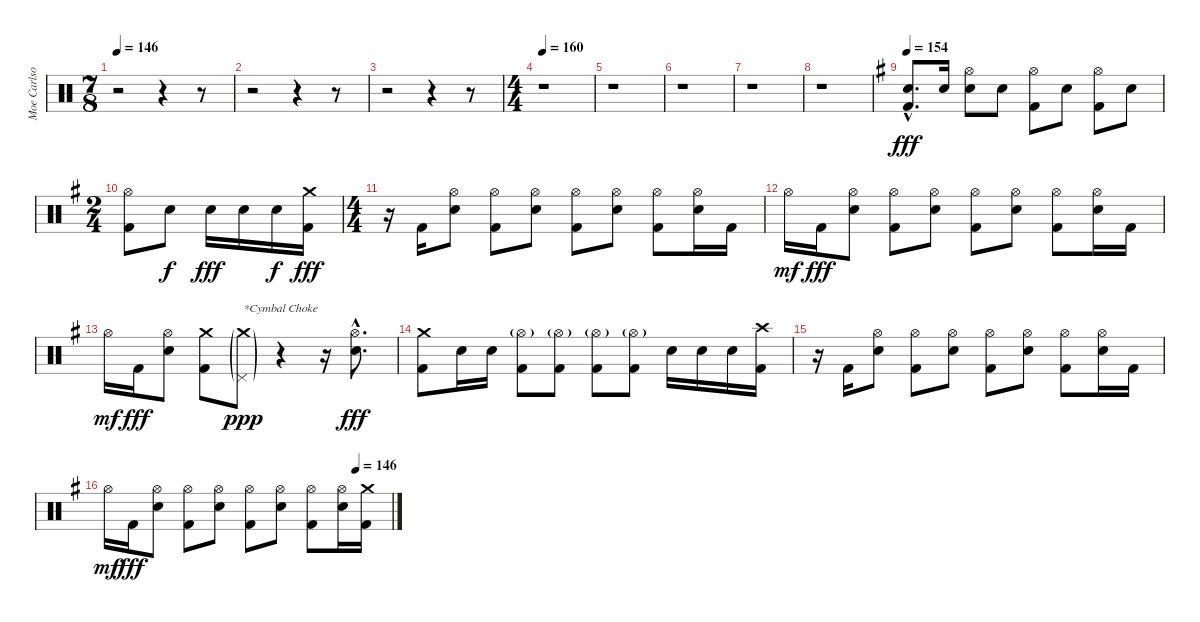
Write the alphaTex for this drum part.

\track ("Moe Carlson" "Moe Carlso") {instrument percussion}
\staff {score}
\articulation defaults
\ts (7 8)
\tempo 146
\clef neutral
\ks c
r.2{dy fff} r.4 r.8 |
r.2 r.4 r.8 |
r.2 r.4 r.8 |
\ts (4 4)
\tempo 160
r.1 |
r.1 |
r.1 |
r.1 |
r.1 |
\tempo 154
\ks g
("Electric Snare (hit)"{hac} "Kick (hit) 2"{hac}).8{d} "Electric Snare (hit)".16 ("Hi-Hat (open)" "Electric Snare (hit)").8 "Electric Snare (hit)".8 ("Hi-Hat (open)" "Kick (hit) 2").8 "Electric Snare (hit)".8 ("Hi-Hat (open)" "Kick (hit) 2").8 "Electric Snare (hit)".8 |
\ts (2 4)
("Hi-Hat (open)" "Kick (hit) 2").8 "Electric Snare (hit)".8{dy f} "Electric Snare (hit)".16{dy fff} "Electric Snare (hit)".16 "Electric Snare (hit)".16{dy f} ("Crash medium (hit)" "Kick (hit) 2").16{dy fff} |
\ts (4 4)
r.16 "Kick (hit) 2".16 ("Hi-Hat (open)" "Electric Snare (hit)").8 ("Hi-Hat (open)" "Kick (hit) 2").8 ("Hi-Hat (open)" "Electric Snare (hit)").8 ("Hi-Hat (open)" "Kick (hit) 2").8 ("Hi-Hat (open)" "Electric Snare (hit)").8 ("Hi-Hat (open)" "Kick (hit) 2").8 ("Hi-Hat (open)" "Electric Snare (hit)").16 "Kick (hit) 2".16 |
"Hi-Hat (open)".16{dy mf} "Kick (hit) 2".16{dy fff} ("Hi-Hat (open)" "Electric Snare (hit)").8 ("Hi-Hat (open)" "Kick (hit) 2").8 ("Hi-Hat (open)" "Electric Snare (hit)").8 ("Hi-Hat (open)" "Kick (hit) 2").8 ("Hi-Hat (open)" "Electric Snare (hit)").8 ("Hi-Hat (open)" "Kick (hit) 2").8 ("Hi-Hat (open)" "Electric Snare (hit)").16 "Kick (hit) 2".16 |
"Hi-Hat (open)".16{dy mf} "Kick (hit) 2".16{dy fff} ("Hi-Hat (open)" "Electric Snare (hit)").8 ("Crash medium (hit)" "Kick (hit) 2").8 ("Crash medium (hit)"{g} "Pedal Hi-Hat (hit)"{g}).8{txt "*Cymbal Choke" dy ppp} r.4 r.16 ("Hi-Hat (open)"{hac} "Electric Snare (hit)"{hac}).8{d dy fff} |
("Crash medium (hit)" "Kick (hit) 2").8 "Electric Snare (hit)".16 "Electric Snare (hit)".16 ("Hi-Hat (open)"{g} "Kick (hit) 2").8 ("Hi-Hat (open)"{g} "Kick (hit) 2").8 ("Hi-Hat (open)"{g} "Kick (hit) 2").8 ("Hi-Hat (open)"{g} "Kick (hit) 2").8 "Electric Snare (hit)".16 "Electric Snare (hit)".16 "Electric Snare (hit)".16 ("Crash high (hit)" "Kick (hit) 2").16 |
r.16 "Kick (hit) 2".16 ("Hi-Hat (open)" "Electric Snare (hit)").8 ("Hi-Hat (open)" "Kick (hit) 2").8 ("Hi-Hat (open)" "Electric Snare (hit)").8 ("Hi-Hat (open)" "Kick (hit) 2").8 ("Hi-Hat (open)" "Electric Snare (hit)").8 ("Hi-Hat (open)" "Kick (hit) 2").8 ("Hi-Hat (open)" "Electric Snare (hit)").16 "Kick (hit) 2".16 |
\tempo (146 0.875)
"Hi-Hat (open)".16{dy mf} "Kick (hit) 2".16{dy fff} ("Hi-Hat (open)" "Electric Snare (hit)").8 ("Hi-Hat (open)" "Kick (hit) 2").8 ("Hi-Hat (open)" "Electric Snare (hit)").8 ("Hi-Hat (open)" "Kick (hit) 2").8 ("Hi-Hat (open)" "Electric Snare (hit)").8 ("Hi-Hat (open)" "Kick (hit) 2").8 ("Hi-Hat (open)" "Electric Snare (hit)").16 ("Crash medium (hit)" "Kick (hit) 2").16
